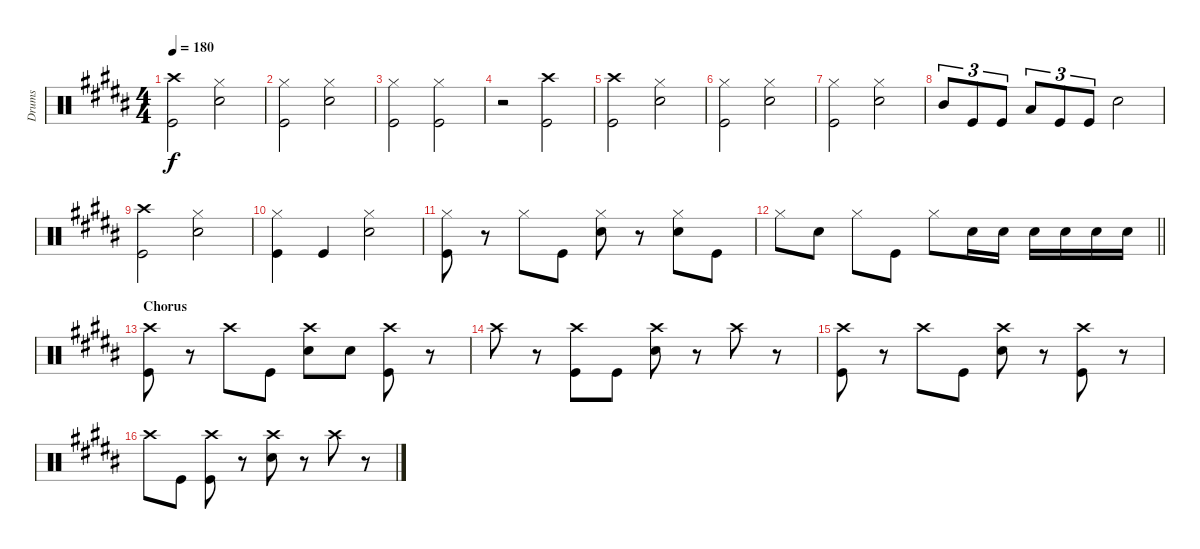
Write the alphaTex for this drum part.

\track ("Drums" "Drums") {instrument percussion}
\staff {score}
\articulation defaults
\ts (4 4)
\tempo 180
\clef neutral
\ks b
("Crash high (hit)" "Kick (hit)").2{dy f} ("Hi-Hat (closed)" "Snare (hit) 2").2 |
("Hi-Hat (closed)" "Kick (hit)").2 ("Hi-Hat (closed)" "Snare (hit) 2").2 |
("Hi-Hat (closed)" "Kick (hit)").2 ("Hi-Hat (closed)" "Kick (hit)").2 |
r.2 ("Crash high (hit)" "Kick (hit)").2 |
("Crash high (hit)" "Kick (hit)").2 ("Hi-Hat (closed)" "Snare (hit) 2").2 |
("Hi-Hat (closed)" "Kick (hit)").2 ("Hi-Hat (closed)" "Snare (hit) 2").2 |
("Hi-Hat (closed)" "Kick (hit)").2 ("Hi-Hat (closed)" "Snare (hit) 2").2 |
"Mid Tom (hit)".8{tu (3 2)} "Kick (hit)".8{tu (3 2)} "Kick (hit)".8{tu (3 2)} "Low Floor Tom (hit)".8{tu (3 2)} "Kick (hit)".8{tu (3 2)} "Kick (hit)".8{tu (3 2)} "Snare (hit) 2".2 |
("Crash high (hit)" "Kick (hit)").2 ("Hi-Hat (closed)" "Snare (hit) 2").2 |
("Hi-Hat (closed)" "Kick (hit)").4 "Kick (hit)".4 ("Hi-Hat (closed)" "Snare (hit) 2").2 |
("Hi-Hat (closed)" "Kick (hit)").8 r.8 "Hi-Hat (closed)".8 "Kick (hit)".8 ("Hi-Hat (closed)" "Snare (hit) 2").8 r.8 ("Hi-Hat (closed)" "Snare (hit) 2").8 "Kick (hit)".8 |
\barLineRight lightlight "Hi-Hat (closed)".8 "Snare (hit) 2".8 "Hi-Hat (closed)".8 "Kick (hit)".8 "Hi-Hat (closed)".8 "Snare (hit) 2".16 "Snare (hit) 2".16 "Snare (hit) 2".16 "Snare (hit) 2".16 "Snare (hit) 2".16 "Snare (hit) 2".16
|
\section ("" "Chorus")
("Crash high (hit)" "Kick (hit)").8 r.8 "Crash high (hit)".8 "Kick (hit)".8 ("Crash high (hit)" "Snare (hit) 2").8 "Snare (hit) 2".8 ("Crash high (hit)" "Kick (hit)").8 r.8 |
"Crash high (hit)".8 r.8 ("Crash high (hit)" "Kick (hit)").8 "Kick (hit)".8 ("Crash high (hit)" "Snare (hit) 2").8 r.8 "Crash high (hit)".8 r.8 |
("Crash high (hit)" "Kick (hit)").8 r.8 "Crash high (hit)".8 "Kick (hit)".8 ("Crash high (hit)" "Snare (hit) 2").8 r.8 ("Crash high (hit)" "Kick (hit)").8 r.8 |
"Crash high (hit)".8 "Kick (hit)".8 ("Crash high (hit)" "Kick (hit)").8 r.8 ("Crash high (hit)" "Snare (hit) 2").8 r.8 "Crash high (hit)".8 r.8
